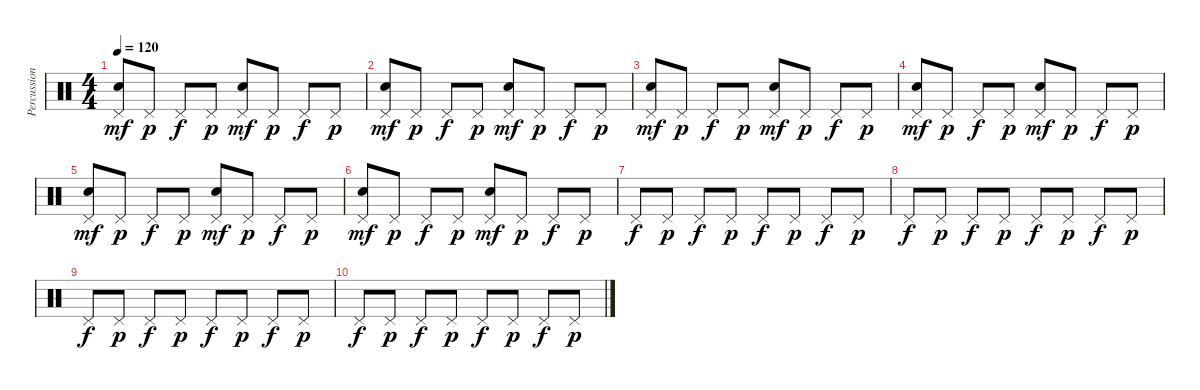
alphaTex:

\track ("Percussions" "Percussion") {instrument percussion}
\staff {score}
\articulation defaults
\ts (4 4)
\tempo 120
\clef neutral
\ks c
("Pedal Hi-Hat (hit)" "Hand Clap (hit)").8{dy mf} "Pedal Hi-Hat (hit)".8{dy p} "Pedal Hi-Hat (hit)".8{dy f} "Pedal Hi-Hat (hit)".8{dy p} ("Pedal Hi-Hat (hit)" "Hand Clap (hit)").8{dy mf} "Pedal Hi-Hat (hit)".8{dy p} "Pedal Hi-Hat (hit)".8{dy f} "Pedal Hi-Hat (hit)".8{dy p} |
("Pedal Hi-Hat (hit)" "Hand Clap (hit)").8{dy mf} "Pedal Hi-Hat (hit)".8{dy p} "Pedal Hi-Hat (hit)".8{dy f} "Pedal Hi-Hat (hit)".8{dy p} ("Pedal Hi-Hat (hit)" "Hand Clap (hit)").8{dy mf} "Pedal Hi-Hat (hit)".8{dy p} "Pedal Hi-Hat (hit)".8{dy f} "Pedal Hi-Hat (hit)".8{dy p} |
("Pedal Hi-Hat (hit)" "Hand Clap (hit)").8{dy mf} "Pedal Hi-Hat (hit)".8{dy p} "Pedal Hi-Hat (hit)".8{dy f} "Pedal Hi-Hat (hit)".8{dy p} ("Pedal Hi-Hat (hit)" "Hand Clap (hit)").8{dy mf} "Pedal Hi-Hat (hit)".8{dy p} "Pedal Hi-Hat (hit)".8{dy f} "Pedal Hi-Hat (hit)".8{dy p} |
("Pedal Hi-Hat (hit)" "Hand Clap (hit)").8{dy mf} "Pedal Hi-Hat (hit)".8{dy p} "Pedal Hi-Hat (hit)".8{dy f} "Pedal Hi-Hat (hit)".8{dy p} ("Pedal Hi-Hat (hit)" "Hand Clap (hit)").8{dy mf} "Pedal Hi-Hat (hit)".8{dy p} "Pedal Hi-Hat (hit)".8{dy f} "Pedal Hi-Hat (hit)".8{dy p} |
("Pedal Hi-Hat (hit)" "Hand Clap (hit)").8{dy mf} "Pedal Hi-Hat (hit)".8{dy p} "Pedal Hi-Hat (hit)".8{dy f} "Pedal Hi-Hat (hit)".8{dy p} ("Pedal Hi-Hat (hit)" "Hand Clap (hit)").8{dy mf} "Pedal Hi-Hat (hit)".8{dy p} "Pedal Hi-Hat (hit)".8{dy f} "Pedal Hi-Hat (hit)".8{dy p} |
("Pedal Hi-Hat (hit)" "Hand Clap (hit)").8{dy mf} "Pedal Hi-Hat (hit)".8{dy p} "Pedal Hi-Hat (hit)".8{dy f} "Pedal Hi-Hat (hit)".8{dy p} ("Pedal Hi-Hat (hit)" "Hand Clap (hit)").8{dy mf} "Pedal Hi-Hat (hit)".8{dy p} "Pedal Hi-Hat (hit)".8{dy f} "Pedal Hi-Hat (hit)".8{dy p} |
"Pedal Hi-Hat (hit)".8{dy f} "Pedal Hi-Hat (hit)".8{dy p} "Pedal Hi-Hat (hit)".8{dy f} "Pedal Hi-Hat (hit)".8{dy p} "Pedal Hi-Hat (hit)".8{dy f} "Pedal Hi-Hat (hit)".8{dy p} "Pedal Hi-Hat (hit)".8{dy f} "Pedal Hi-Hat (hit)".8{dy p} |
"Pedal Hi-Hat (hit)".8{dy f} "Pedal Hi-Hat (hit)".8{dy p} "Pedal Hi-Hat (hit)".8{dy f} "Pedal Hi-Hat (hit)".8{dy p} "Pedal Hi-Hat (hit)".8{dy f} "Pedal Hi-Hat (hit)".8{dy p} "Pedal Hi-Hat (hit)".8{dy f} "Pedal Hi-Hat (hit)".8{dy p} |
"Pedal Hi-Hat (hit)".8{dy f} "Pedal Hi-Hat (hit)".8{dy p} "Pedal Hi-Hat (hit)".8{dy f} "Pedal Hi-Hat (hit)".8{dy p} "Pedal Hi-Hat (hit)".8{dy f} "Pedal Hi-Hat (hit)".8{dy p} "Pedal Hi-Hat (hit)".8{dy f} "Pedal Hi-Hat (hit)".8{dy p} |
"Pedal Hi-Hat (hit)".8{dy f} "Pedal Hi-Hat (hit)".8{dy p} "Pedal Hi-Hat (hit)".8{dy f} "Pedal Hi-Hat (hit)".8{dy p} "Pedal Hi-Hat (hit)".8{dy f} "Pedal Hi-Hat (hit)".8{dy p} "Pedal Hi-Hat (hit)".8{dy f} "Pedal Hi-Hat (hit)".8{dy p}
